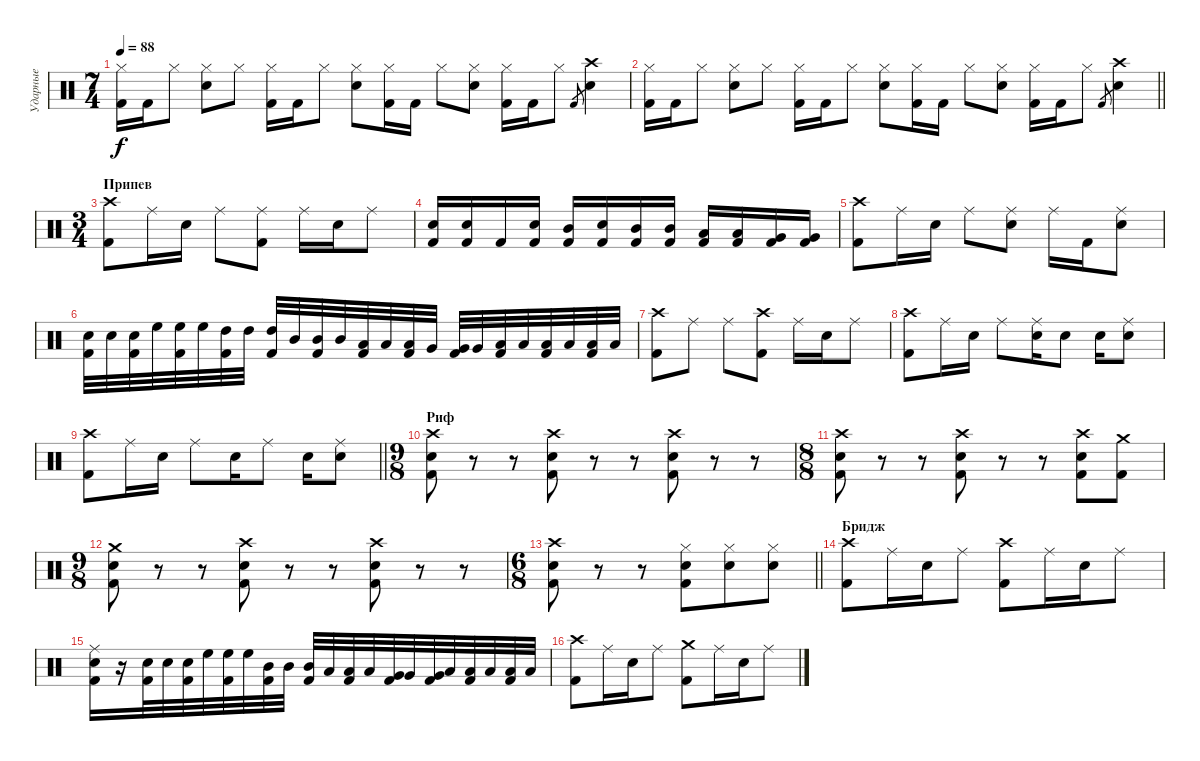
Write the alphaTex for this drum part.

\track ("Ударные" "Ударные") {instrument percussion}
\staff {score}
\articulation defaults
\ts (7 4)
\tempo 88
\clef neutral
\ks c
("Hi-Hat (closed)" "Kick (hit) 2").16{dy f} "Kick (hit) 2".16 "Hi-Hat (closed)".8 ("Hi-Hat (closed)" "Snare (hit) 2").8 "Hi-Hat (closed)".8 ("Hi-Hat (closed)" "Kick (hit) 2").16 "Kick (hit) 2".16 "Hi-Hat (closed)".8 ("Hi-Hat (closed)" "Snare (hit) 2").8 ("Hi-Hat (closed)" "Kick (hit) 2").16 "Kick (hit) 2".16 "Hi-Hat (closed)".8 ("Hi-Hat (closed)" "Snare (hit) 2").8 ("Hi-Hat (closed)" "Kick (hit) 2").16 "Kick (hit) 2".16 "Hi-Hat (closed)".8 "Kick (hit) 2".8{gr} ("Crash high (hit)" "Snare (hit) 2").4 |
\barLineRight lightlight
("Hi-Hat (closed)" "Kick (hit) 2").16 "Kick (hit) 2".16 "Hi-Hat (closed)".8 ("Hi-Hat (closed)" "Snare (hit) 2").8 "Hi-Hat (closed)".8 ("Hi-Hat (closed)" "Kick (hit) 2").16 "Kick (hit) 2".16 "Hi-Hat (closed)".8 ("Hi-Hat (closed)" "Snare (hit) 2").8 ("Hi-Hat (closed)" "Kick (hit) 2").16 "Kick (hit) 2".16 "Hi-Hat (closed)".8 ("Hi-Hat (closed)" "Snare (hit) 2").8 ("Hi-Hat (closed)" "Kick (hit) 2").16 "Kick (hit) 2".16 "Hi-Hat (closed)".8 "Kick (hit) 2".8{gr} ("Crash high (hit)" "Snare (hit) 2").4 |
\ts (3 4)
\section ("" "Припев")
("Crash high (hit)" "Kick (hit) 2").8 "Ride (middle)".16 "Snare (hit) 2".16 "Ride (middle)".8 ("Ride (middle)" "Kick (hit) 2").8 "Ride (middle)".16 "Snare (hit) 2".16 "Ride (middle)".8 |
("Snare (hit) 2" "Kick (hit) 2").16 ("Snare (hit) 2" "Kick (hit) 2").16 "Kick (hit) 2".16 ("Snare (hit) 2" "Kick (hit) 2").16 ("Mid Tom (hit)" "Kick (hit) 2").16 ("Snare (hit) 2" "Kick (hit) 2").16 ("Mid Tom (hit)" "Kick (hit) 2").16 ("Mid Tom (hit)" "Kick (hit) 2").16 ("Low Tom (hit)" "Kick (hit) 2").16 ("Low Tom (hit)" "Kick (hit) 2").16 ("Very Low Tom (hit)" "Kick (hit) 2").16 ("Very Low Tom (hit)" "Kick (hit) 2").16 |
("Crash high (hit)" "Kick (hit) 2").8 "Ride (middle)".16 "Snare (hit) 2".16 "Ride (middle)".8 ("Ride (middle)" "Snare (hit) 2").8 "Ride (middle)".16 "Kick (hit) 2".16 ("Ride (middle)" "Snare (hit) 2").8 |
("Snare (hit) 2" "Kick (hit) 2").32 "Snare (hit) 2".32 ("Snare (hit) 2" "Kick (hit) 2").32 "High Floor Tom (hit)".32 ("High Floor Tom (hit)" "Kick (hit) 2").32 "High Floor Tom (hit)".32 ("High Tom (hit)" "Kick (hit) 2").32 "High Tom (hit)".32 ("High Tom (hit)" "Kick (hit) 2").32 "Mid Tom (hit)".32 ("Mid Tom (hit)" "Kick (hit) 2").32 "Mid Tom (hit)".32 ("Low Tom (hit)" "Kick (hit) 2").32 "Low Tom (hit)".32 ("Low Tom (hit)" "Kick (hit) 2").32 "Very Low Tom (hit)".32 ("Very Low Tom (hit)" "Kick (hit) 2").32 "Very Low Tom (hit)".32 ("Low Floor Tom (hit)" "Kick (hit) 2").32 "Low Floor Tom (hit)".32 ("Low Floor Tom (hit)" "Kick (hit) 2").32 "Low Floor Tom (hit)".32 ("Low Floor Tom (hit)" "Kick (hit) 2").32 "Low Floor Tom (hit)".32 |
("Crash high (hit)" "Kick (hit) 2").8 "Ride (middle)".8 "Ride (middle)".8 ("Crash high (hit)" "Kick (hit) 2").8 "Ride (middle)".16 "Snare (hit) 2".16 "Ride (middle)".8 |
("Crash high (hit)" "Kick (hit) 2").8 "Ride (middle)".16 "Snare (hit) 2".16 "Ride (middle)".8 ("Ride (middle)" "Snare (hit) 2").16 "Snare (hit) 2".8 "Snare (hit) 2".16 ("Ride (middle)" "Snare (hit) 2").8 |
\barLineRight lightlight
("Crash high (hit)" "Kick (hit) 2").8 "Ride (middle)".16 "Snare (hit) 2".16 "Ride (middle)".8 "Snare (hit) 2".16 "Ride (middle)".8 "Snare (hit) 2".16 ("Ride (middle)" "Snare (hit) 2").8 |
\ts (9 8)
\section ("" "Риф")
("Crash high (hit)" "Snare (hit) 2" "Kick (hit) 2").8 r.8 r.8 ("Crash high (hit)" "Snare (hit) 2" "Kick (hit) 2").8 r.8 r.8 ("Crash high (hit)" "Snare (hit) 2" "Kick (hit) 2").8 r.8 r.8 |
\ts (8 8)
("Crash high (hit)" "Snare (hit) 2" "Kick (hit) 2").8 r.8 r.8 ("Crash high (hit)" "Snare (hit) 2" "Kick (hit) 2").8 r.8 r.8 ("Crash high (hit)" "Snare (hit) 2" "Kick (hit) 2").8 ("Crash medium (hit)" "Kick (hit) 2").8 |
\ts (9 8)
("Crash medium (hit)" "Snare (hit) 2" "Kick (hit) 2").8 r.8 r.8 ("Crash high (hit)" "Snare (hit) 2" "Kick (hit) 2").8 r.8 r.8 ("Crash high (hit)" "Snare (hit) 2" "Kick (hit) 2").8 r.8 r.8 |
\ts (6 8)
\barLineRight lightlight
("Crash high (hit)" "Snare (hit) 2" "Kick (hit) 2").8 r.8 r.8 ("Hi-Hat (closed)" "Snare (hit) 2" "Kick (hit) 2").8 ("Hi-Hat (closed)" "Snare (hit) 2").8 ("Hi-Hat (closed)" "Snare (hit) 2").8 |
\section ("" "Бридж")
("Crash high (hit)" "Kick (hit) 2").8 "Ride (middle)".16 "Snare (hit) 2".16 "Ride (middle)".8 ("Crash high (hit)" "Kick (hit) 2").8 "Ride (middle)".16 "Snare (hit) 2".16 "Ride (middle)".8 |
("Ride (middle)" "Snare (hit) 2" "Kick (hit) 2").16 r.16 ("Snare (hit) 2" "Kick (hit) 2").32 "Snare (hit) 2".32 ("Snare (hit) 2" "Kick (hit) 2").32 "High Floor Tom (hit)".32 ("High Floor Tom (hit)" "Kick (hit) 2").32 "High Floor Tom (hit)".32 ("Mid Tom (hit)" "Kick (hit) 2").32 "Mid Tom (hit)".32 ("Mid Tom (hit)" "Kick (hit) 2").32 "Low Tom (hit)".32 ("Low Tom (hit)" "Kick (hit) 2").32 "Low Tom (hit)".32 ("Very Low Tom (hit)" "Kick (hit) 2").32 "Very Low Tom (hit)".32 ("Very Low Tom (hit)" "Kick (hit) 2").32 "Low Floor Tom (hit)".32 ("Low Floor Tom (hit)" "Kick (hit) 2").32 "Low Floor Tom (hit)".32 ("Low Floor Tom (hit)" "Kick (hit) 2").32 "Low Floor Tom (hit)".32 |
("Crash high (hit)" "Kick (hit) 2").8 "Ride (middle)".16 "Snare (hit) 2".16 "Ride (middle)".8 ("Crash medium (hit)" "Kick (hit) 2").8 "Ride (middle)".16 "Snare (hit) 2".16 "Ride (middle)".8
